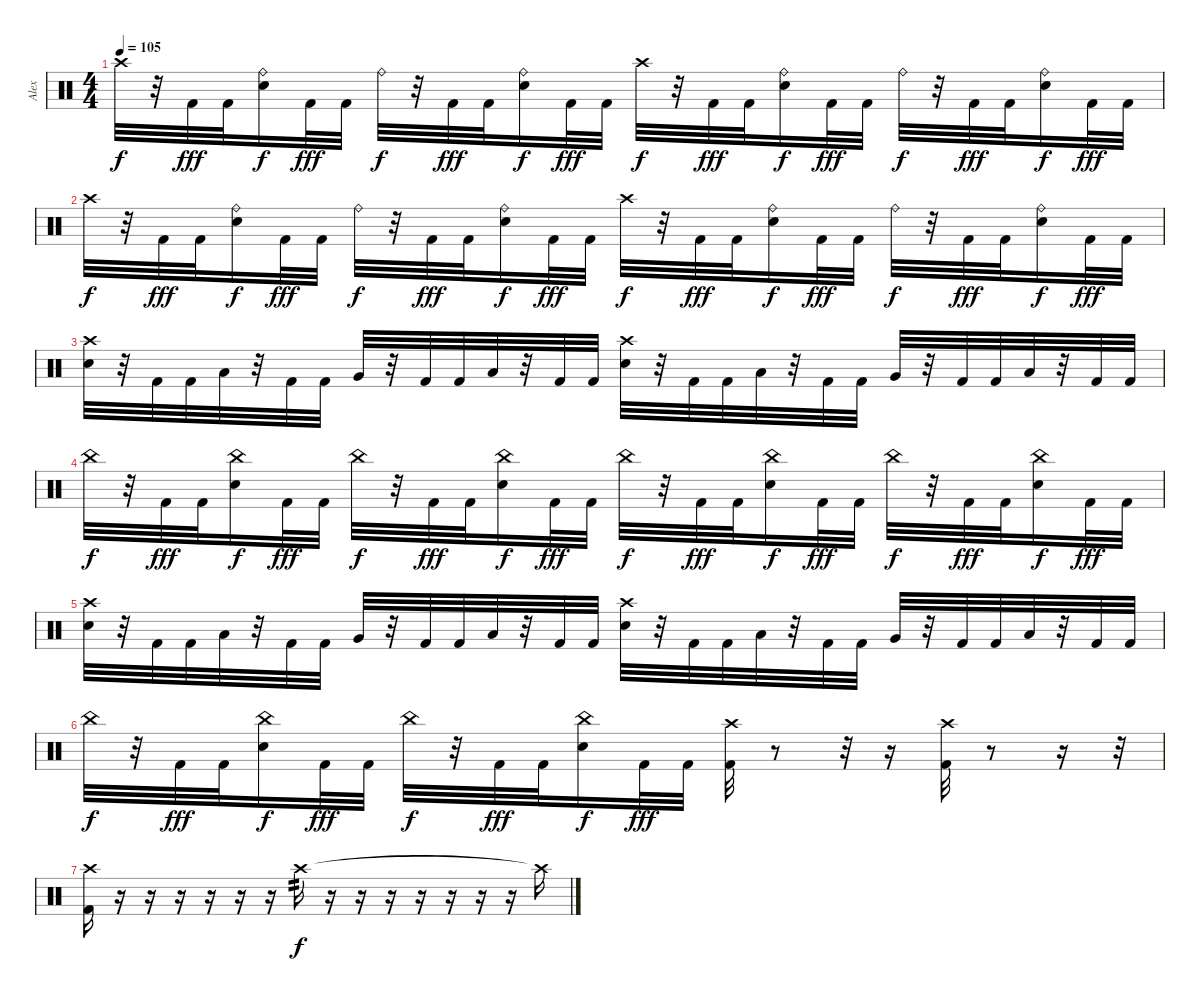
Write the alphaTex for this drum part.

\track ("Alex" "Alex") {instrument percussion}
\staff {score}
\articulation defaults
\ts (4 4)
\tempo 105
\clef neutral
\ks c "Crash high (hit)".32{dy f}
r.32 "Kick (hit) 2".32{dy fff} "Kick (hit) 2".32 ("Ride (bell)" "Electric Snare (hit)").16{dy f} "Kick (hit) 2".32{dy fff} "Kick (hit) 2".32 "Ride (bell)".32{dy f} r.32 "Kick (hit) 2".32{dy fff} "Kick (hit) 2".32 ("Ride (bell)" "Electric Snare (hit)").16{dy f} "Kick (hit) 2".32{dy fff} "Kick (hit) 2".32 "Crash high (hit)".32{dy f} r.32 "Kick (hit) 2".32{dy fff} "Kick (hit) 2".32 ("Ride (bell)" "Electric Snare (hit)").16{dy f} "Kick (hit) 2".32{dy fff} "Kick (hit) 2".32 "Ride (bell)".32{dy f} r.32 "Kick (hit) 2".32{dy fff} "Kick (hit) 2".32 ("Ride (bell)" "Electric Snare (hit)").16{dy f} "Kick (hit) 2".32{dy fff} "Kick (hit) 2".32 |
"Crash high (hit)".32{dy f} r.32 "Kick (hit) 2".32{dy fff} "Kick (hit) 2".32 ("Ride (bell)" "Electric Snare (hit)").16{dy f} "Kick (hit) 2".32{dy fff} "Kick (hit) 2".32 "Ride (bell)".32{dy f} r.32 "Kick (hit) 2".32{dy fff} "Kick (hit) 2".32 ("Ride (bell)" "Electric Snare (hit)").16{dy f} "Kick (hit) 2".32{dy fff} "Kick (hit) 2".32 "Crash high (hit)".32{dy f} r.32 "Kick (hit) 2".32{dy fff} "Kick (hit) 2".32 ("Ride (bell)" "Electric Snare (hit)").16{dy f} "Kick (hit) 2".32{dy fff} "Kick (hit) 2".32 "Ride (bell)".32{dy f} r.32 "Kick (hit) 2".32{dy fff} "Kick (hit) 2".32 ("Ride (bell)" "Electric Snare (hit)").16{dy f} "Kick (hit) 2".32{dy fff} "Kick (hit) 2".32 |
("Crash high (hit)" "Electric Snare (hit)").32 r.32 "Kick (hit) 2".32 "Kick (hit) 2".32 "Low Tom (hit)".32 r.32 "Kick (hit) 2".32 "Kick (hit) 2".32 "Very Low Tom (hit)".32 r.32 "Kick (hit) 2".32 "Kick (hit) 2".32 "Low Floor Tom (hit)".32 r.32 "Kick (hit) 2".32 "Kick (hit) 2".32 ("Crash high (hit)" "Electric Snare (hit)").32 r.32 "Kick (hit) 2".32 "Kick (hit) 2".32 "Low Tom (hit)".32 r.32 "Kick (hit) 2".32 "Kick (hit) 2".32 "Very Low Tom (hit)".32 r.32 "Kick (hit) 2".32 "Kick (hit) 2".32 "Low Floor Tom (hit)".32 r.32 "Kick (hit) 2".32 "Kick (hit) 2".32 |
"China (hit)".32{dy f} r.32 "Kick (hit) 2".32{dy fff} "Kick (hit) 2".32 ("China (hit)" "Electric Snare (hit)").16{dy f} "Kick (hit) 2".32{dy fff} "Kick (hit) 2".32 "China (hit)".32{dy f} r.32 "Kick (hit) 2".32{dy fff} "Kick (hit) 2".32 ("China (hit)" "Electric Snare (hit)").16{dy f} "Kick (hit) 2".32{dy fff} "Kick (hit) 2".32 "China (hit)".32{dy f} r.32 "Kick (hit) 2".32{dy fff} "Kick (hit) 2".32 ("China (hit)" "Electric Snare (hit)").16{dy f} "Kick (hit) 2".32{dy fff} "Kick (hit) 2".32 "China (hit)".32{dy f} r.32 "Kick (hit) 2".32{dy fff} "Kick (hit) 2".32 ("China (hit)" "Electric Snare (hit)").16{dy f} "Kick (hit) 2".32{dy fff} "Kick (hit) 2".32 |
("Crash high (hit)" "Electric Snare (hit)").32 r.32 "Kick (hit) 2".32 "Kick (hit) 2".32 "Low Tom (hit)".32 r.32 "Kick (hit) 2".32 "Kick (hit) 2".32 "Very Low Tom (hit)".32 r.32 "Kick (hit) 2".32 "Kick (hit) 2".32 "Low Floor Tom (hit)".32 r.32 "Kick (hit) 2".32 "Kick (hit) 2".32 ("Crash high (hit)" "Electric Snare (hit)").32 r.32 "Kick (hit) 2".32 "Kick (hit) 2".32 "Low Tom (hit)".32 r.32 "Kick (hit) 2".32 "Kick (hit) 2".32 "Very Low Tom (hit)".32 r.32 "Kick (hit) 2".32 "Kick (hit) 2".32 "Low Floor Tom (hit)".32 r.32 "Kick (hit) 2".32 "Kick (hit) 2".32 |
"China (hit)".32{dy f} r.32 "Kick (hit) 2".32{dy fff} "Kick (hit) 2".32 ("China (hit)" "Electric Snare (hit)").16{dy f} "Kick (hit) 2".32{dy fff} "Kick (hit) 2".32 "China (hit)".32{dy f} r.32 "Kick (hit) 2".32{dy fff} "Kick (hit) 2".32 ("China (hit)" "Electric Snare (hit)").16{dy f} "Kick (hit) 2".32{dy fff} "Kick (hit) 2".32 ("Crash high (hit)" "Kick (hit) 2").32 r.8 r.32 r.16 ("Crash high (hit)" "Kick (hit) 2").32 r.8 r.16 r.32 |
("Crash high (hit)" "Kick (hit) 2").16 r.16 r.16 r.16 r.16 r.16 r.16{volume 5} "Crash high (hit)".16{tp 2 dy f volume 16} r.16 r.16 r.16 r.16 r.16 r.16 r.16 "Crash high (hit)"{t}.16
